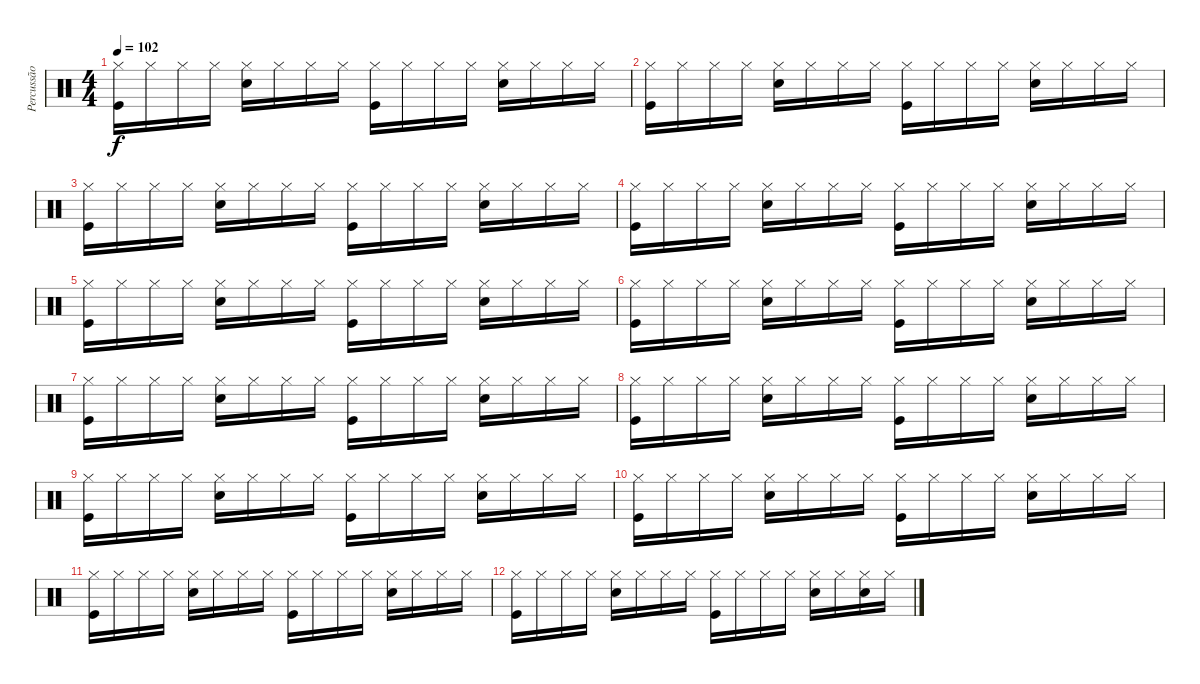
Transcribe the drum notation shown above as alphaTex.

\track ("Percussão" "Percussão") {instrument percussion}
\staff {score}
\articulation defaults
\ts (4 4)
\tempo 102
\clef neutral
\ks c
("Hi-Hat (closed)" "Kick (hit)").16{dy f} "Hi-Hat (closed)".16 "Hi-Hat (closed)".16 "Hi-Hat (closed)".16 ("Hi-Hat (closed)" "Snare (hit) 2").16 "Hi-Hat (closed)".16 "Hi-Hat (closed)".16 "Hi-Hat (closed)".16 ("Hi-Hat (closed)" "Kick (hit)").16 "Hi-Hat (closed)".16 "Hi-Hat (closed)".16 "Hi-Hat (closed)".16 ("Hi-Hat (closed)" "Snare (hit) 2").16 "Hi-Hat (closed)".16 "Hi-Hat (closed)".16 "Hi-Hat (closed)".16 |
("Hi-Hat (closed)" "Kick (hit)").16 "Hi-Hat (closed)".16 "Hi-Hat (closed)".16 "Hi-Hat (closed)".16 ("Hi-Hat (closed)" "Snare (hit) 2").16 "Hi-Hat (closed)".16 "Hi-Hat (closed)".16 "Hi-Hat (closed)".16 ("Hi-Hat (closed)" "Kick (hit)").16 "Hi-Hat (closed)".16 "Hi-Hat (closed)".16 "Hi-Hat (closed)".16 ("Hi-Hat (closed)" "Snare (hit) 2").16 "Hi-Hat (closed)".16 "Hi-Hat (closed)".16 "Hi-Hat (closed)".16 |
("Hi-Hat (closed)" "Kick (hit)").16 "Hi-Hat (closed)".16 "Hi-Hat (closed)".16 "Hi-Hat (closed)".16 ("Hi-Hat (closed)" "Snare (hit) 2").16 "Hi-Hat (closed)".16 "Hi-Hat (closed)".16 "Hi-Hat (closed)".16 ("Hi-Hat (closed)" "Kick (hit)").16 "Hi-Hat (closed)".16 "Hi-Hat (closed)".16 "Hi-Hat (closed)".16 ("Hi-Hat (closed)" "Snare (hit) 2").16 "Hi-Hat (closed)".16 "Hi-Hat (closed)".16 "Hi-Hat (closed)".16 |
("Hi-Hat (closed)" "Kick (hit)").16 "Hi-Hat (closed)".16 "Hi-Hat (closed)".16 "Hi-Hat (closed)".16 ("Hi-Hat (closed)" "Snare (hit) 2").16 "Hi-Hat (closed)".16 "Hi-Hat (closed)".16 "Hi-Hat (closed)".16 ("Hi-Hat (closed)" "Kick (hit)").16 "Hi-Hat (closed)".16 "Hi-Hat (closed)".16 "Hi-Hat (closed)".16 ("Hi-Hat (closed)" "Snare (hit) 2").16 "Hi-Hat (closed)".16 "Hi-Hat (closed)".16 "Hi-Hat (closed)".16 |
("Hi-Hat (closed)" "Kick (hit)").16 "Hi-Hat (closed)".16 "Hi-Hat (closed)".16 "Hi-Hat (closed)".16 ("Hi-Hat (closed)" "Snare (hit) 2").16 "Hi-Hat (closed)".16 "Hi-Hat (closed)".16 "Hi-Hat (closed)".16 ("Hi-Hat (closed)" "Kick (hit)").16 "Hi-Hat (closed)".16 "Hi-Hat (closed)".16 "Hi-Hat (closed)".16 ("Hi-Hat (closed)" "Snare (hit) 2").16 "Hi-Hat (closed)".16 "Hi-Hat (closed)".16 "Hi-Hat (closed)".16 |
("Hi-Hat (closed)" "Kick (hit)").16 "Hi-Hat (closed)".16 "Hi-Hat (closed)".16 "Hi-Hat (closed)".16 ("Hi-Hat (closed)" "Snare (hit) 2").16 "Hi-Hat (closed)".16 "Hi-Hat (closed)".16 "Hi-Hat (closed)".16 ("Hi-Hat (closed)" "Kick (hit)").16 "Hi-Hat (closed)".16 "Hi-Hat (closed)".16 "Hi-Hat (closed)".16 ("Hi-Hat (closed)" "Snare (hit) 2").16 "Hi-Hat (closed)".16 "Hi-Hat (closed)".16 "Hi-Hat (closed)".16 |
("Hi-Hat (closed)" "Kick (hit)").16 "Hi-Hat (closed)".16 "Hi-Hat (closed)".16 "Hi-Hat (closed)".16 ("Hi-Hat (closed)" "Snare (hit) 2").16 "Hi-Hat (closed)".16 "Hi-Hat (closed)".16 "Hi-Hat (closed)".16 ("Hi-Hat (closed)" "Kick (hit)").16 "Hi-Hat (closed)".16 "Hi-Hat (closed)".16 "Hi-Hat (closed)".16 ("Hi-Hat (closed)" "Snare (hit) 2").16 "Hi-Hat (closed)".16 "Hi-Hat (closed)".16 "Hi-Hat (closed)".16 |
("Hi-Hat (closed)" "Kick (hit)").16 "Hi-Hat (closed)".16 "Hi-Hat (closed)".16 "Hi-Hat (closed)".16 ("Hi-Hat (closed)" "Snare (hit) 2").16 "Hi-Hat (closed)".16 "Hi-Hat (closed)".16 "Hi-Hat (closed)".16 ("Hi-Hat (closed)" "Kick (hit)").16 "Hi-Hat (closed)".16 "Hi-Hat (closed)".16 "Hi-Hat (closed)".16 ("Hi-Hat (closed)" "Snare (hit) 2").16 "Hi-Hat (closed)".16 "Hi-Hat (closed)".16 "Hi-Hat (closed)".16 |
("Hi-Hat (closed)" "Kick (hit)").16 "Hi-Hat (closed)".16 "Hi-Hat (closed)".16 "Hi-Hat (closed)".16 ("Hi-Hat (closed)" "Snare (hit) 2").16 "Hi-Hat (closed)".16 "Hi-Hat (closed)".16 "Hi-Hat (closed)".16 ("Hi-Hat (closed)" "Kick (hit)").16 "Hi-Hat (closed)".16 "Hi-Hat (closed)".16 "Hi-Hat (closed)".16 ("Hi-Hat (closed)" "Snare (hit) 2").16 "Hi-Hat (closed)".16 "Hi-Hat (closed)".16 "Hi-Hat (closed)".16 |
("Hi-Hat (closed)" "Kick (hit)").16 "Hi-Hat (closed)".16 "Hi-Hat (closed)".16 "Hi-Hat (closed)".16 ("Hi-Hat (closed)" "Snare (hit) 2").16 "Hi-Hat (closed)".16 "Hi-Hat (closed)".16 "Hi-Hat (closed)".16 ("Hi-Hat (closed)" "Kick (hit)").16 "Hi-Hat (closed)".16 "Hi-Hat (closed)".16 "Hi-Hat (closed)".16 ("Hi-Hat (closed)" "Snare (hit) 2").16 "Hi-Hat (closed)".16 "Hi-Hat (closed)".16 "Hi-Hat (closed)".16 |
("Hi-Hat (closed)" "Kick (hit)").16 "Hi-Hat (closed)".16 "Hi-Hat (closed)".16 "Hi-Hat (closed)".16 ("Hi-Hat (closed)" "Snare (hit) 2").16 "Hi-Hat (closed)".16 "Hi-Hat (closed)".16 "Hi-Hat (closed)".16 ("Hi-Hat (closed)" "Kick (hit)").16 "Hi-Hat (closed)".16 "Hi-Hat (closed)".16 "Hi-Hat (closed)".16 ("Hi-Hat (closed)" "Snare (hit) 2").16 "Hi-Hat (closed)".16 "Hi-Hat (closed)".16 "Hi-Hat (closed)".16 |
("Hi-Hat (closed)" "Kick (hit)").16 "Hi-Hat (closed)".16 "Hi-Hat (closed)".16 "Hi-Hat (closed)".16 ("Hi-Hat (closed)" "Snare (hit) 2").16 "Hi-Hat (closed)".16 "Hi-Hat (closed)".16 "Hi-Hat (closed)".16 ("Hi-Hat (closed)" "Kick (hit)").16 "Hi-Hat (closed)".16 "Hi-Hat (closed)".16 "Hi-Hat (closed)".16 ("Hi-Hat (closed)" "Snare (hit) 2").16 "Hi-Hat (closed)".16 ("Hi-Hat (closed)" "Snare (hit) 2").16 "Hi-Hat (closed)".16
